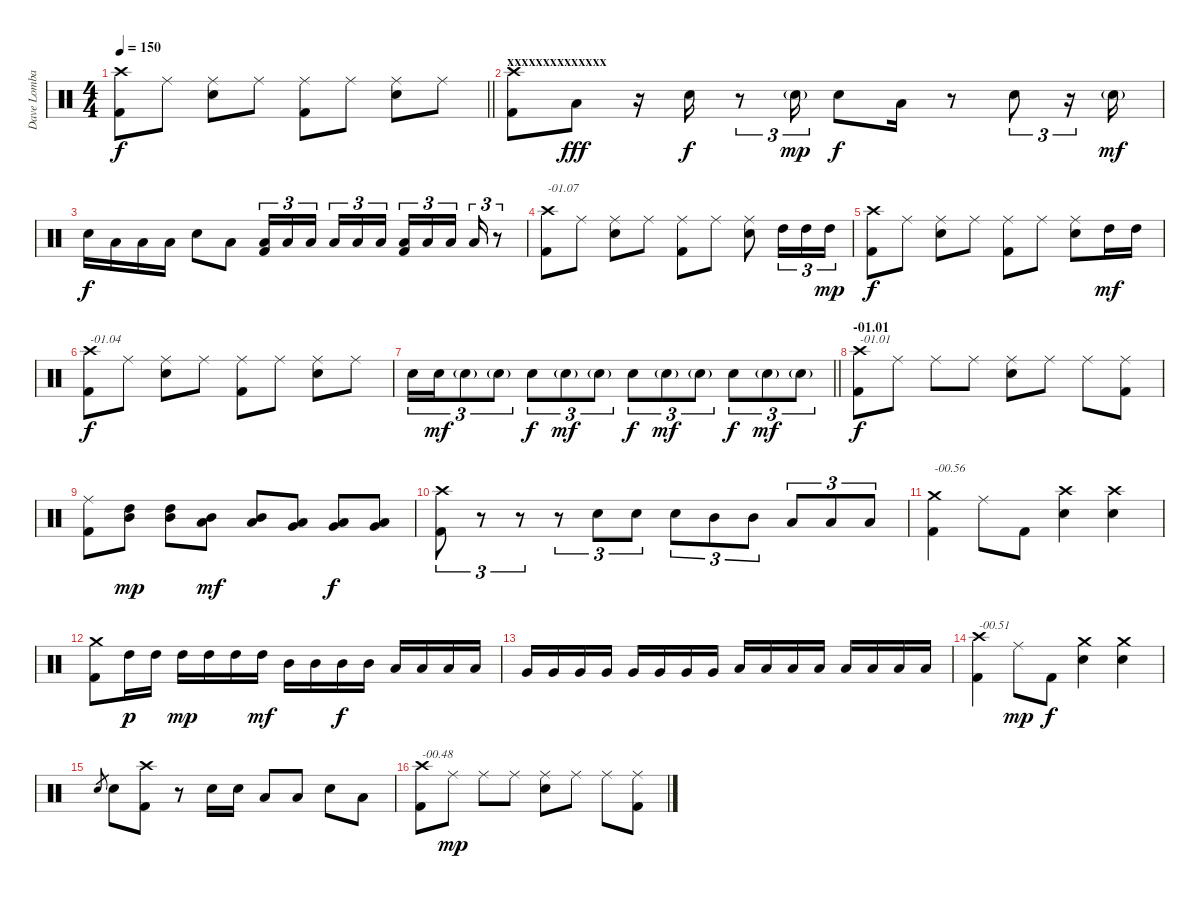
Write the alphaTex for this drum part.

\track ("Dave Lombardo (Drums)" "Dave Lomba") {instrument percussion}
\staff {score}
\articulation defaults
\ts (4 4)
\tempo 150
\clef neutral
\barLineRight lightlight
\ks c
("Crash high (hit)" "Kick (hit) 2").8{dy f} "Ride (middle)".8 ("Ride (middle)" "Electric Snare (hit)").8 "Ride (middle)".8 ("Ride (middle)" "Kick (hit) 2").8 "Ride (middle)".8 ("Ride (middle)" "Electric Snare (hit)").8 "Ride (middle)".8 |
\section ("" "xxxxxxxxxxxxxx")
("Crash high (hit)" "Kick (hit) 2").8 "Low Tom (hit)".8{dy fff} r.16 "Electric Snare (hit)".16{dy f} r.8{tu (3 2)} "Electric Snare (hit)"{g}.16{tu (3 2) dy mp} "Electric Snare (hit)".8{dy f} "Low Tom (hit)".16 r.8 "Electric Snare (hit)".8{tu (3 2)} r.16{tu (3 2)} "Electric Snare (hit)"{g}.16{dy mf} |
"Electric Snare (hit)".16{dy f} "Low Tom (hit)".16 "Low Tom (hit)".16 "Low Tom (hit)".16 "Electric Snare (hit)".8 "Low Tom (hit)".8 ("Low Floor Tom (hit)" "Kick (hit) 2").16{tu (3 2)} "Low Floor Tom (hit)".16{tu (3 2)} "Low Floor Tom (hit)".16{tu (3 2) beam splitsecondary} "Low Floor Tom (hit)".16{tu (3 2)} "Low Floor Tom (hit)".16{tu (3 2)} "Low Floor Tom (hit)".16{tu (3 2)} ("Low Floor Tom (hit)" "Kick (hit) 2").16{tu (3 2)} "Low Floor Tom (hit)".16{tu (3 2)} "Low Floor Tom (hit)".16{tu (3 2) beam splitsecondary} "Low Floor Tom (hit)".16{tu (3 2)} r.8{tu (3 2)} |
("Crash high (hit)" "Kick (hit) 2").8{txt "-01.07"} "Ride (middle)".8 ("Ride (middle)" "Electric Snare (hit)").8 "Ride (middle)".8 ("Ride (middle)" "Kick (hit) 2").8 "Ride (middle)".8 ("Ride (middle)" "Electric Snare (hit)").8 "High Tom (hit)".16{tu (3 2)} "High Tom (hit)".16{tu (3 2)} "High Tom (hit)".16{tu (3 2) dy mp} |
("Crash high (hit)" "Kick (hit) 2").8{dy f} "Ride (middle)".8 ("Ride (middle)" "Electric Snare (hit)").8 "Ride (middle)".8 ("Ride (middle)" "Kick (hit) 2").8 "Ride (middle)".8 ("Ride (middle)" "Electric Snare (hit)").8 "High Tom (hit)".16{dy mf} "High Tom (hit)".16 |
("Crash high (hit)" "Kick (hit) 2").8{txt "-01.04" dy f} "Ride (middle)".8 ("Ride (middle)" "Electric Snare (hit)").8 "Ride (middle)".8 ("Ride (middle)" "Kick (hit) 2").8 "Ride (middle)".8 ("Ride (middle)" "Electric Snare (hit)").8 "Ride (middle)".8 |
\barLineRight lightlight "Electric Snare (hit)".16{tu (3 2)} "Electric Snare (hit)".16{tu (3 2) dy mf} "Electric Snare (hit)"{g}.8{tu (3 2)} "Electric Snare (hit)"{g}.8{tu (3 2)} "Electric Snare (hit)".8{tu (3 2) dy f} "Electric Snare (hit)"{g}.8{tu (3 2) dy mf} "Electric Snare (hit)"{g}.8{tu (3 2)} "Electric Snare (hit)".8{tu (3 2) dy f} "Electric Snare (hit)"{g}.8{tu (3 2) dy mf} "Electric Snare (hit)"{g}.8{tu (3 2)} "Electric Snare (hit)".8{tu (3 2) dy f} "Electric Snare (hit)"{g}.8{tu (3 2) dy mf} "Electric Snare (hit)"{g}.8{tu (3 2)}
|
\section ("" "-01.01")
("Crash high (hit)" "Kick (hit) 2").8{txt "-01.01" dy f} "Ride (middle)".8 "Ride (middle)".8 "Ride (middle)".8 ("Ride (middle)" "Electric Snare (hit)").8 "Ride (middle)".8 "Ride (middle)".8 ("Ride (middle)" "Kick (hit) 2").8 |
("Ride (middle)" "Kick (hit) 2").8 ("Mid Tom (hit)" "High Tom (hit)").8{dy mp} ("Mid Tom (hit)" "High Tom (hit)").8 ("Low Tom (hit)" "Mid Tom (hit)").8{dy mf} ("Low Tom (hit)" "Mid Tom (hit)").8 ("Low Tom (hit)" "Very Low Tom (hit)").8 ("Very Low Tom (hit)" "Low Floor Tom (hit)").8{dy f} ("Very Low Tom (hit)" "Low Floor Tom (hit)").8 |
("Crash high (hit)" "Kick (hit) 2").8{tu (3 2)} r.8{tu (3 2)} r.8{tu (3 2)} r.8{tu (3 2)} "Electric Snare (hit)".8{tu (3 2)} "Electric Snare (hit)".8{tu (3 2)} "Electric Snare (hit)".8{tu (3 2)} "Mid Tom (hit)".8{tu (3 2)} "Mid Tom (hit)".8{tu (3 2)} "Low Tom (hit)".8{tu (3 2)} "Low Tom (hit)".8{tu (3 2)} "Low Tom (hit)".8{tu (3 2)} |
("Crash medium (hit)" "Kick (hit) 2").4{txt "-00.56"} "Ride (middle)".8 "Kick (hit) 2".8 ("Crash high (hit)" "Electric Snare (hit)").4 ("Crash high (hit)" "Electric Snare (hit)").4 |
("Crash medium (hit)" "Kick (hit) 2").8 "High Tom (hit)".16{dy p} "High Tom (hit)".16 "High Tom (hit)".16{dy mp} "High Tom (hit)".16 "High Tom (hit)".16 "High Tom (hit)".16{dy mf} "Mid Tom (hit)".16 "Mid Tom (hit)".16 "Mid Tom (hit)".16{dy f} "Mid Tom (hit)".16 "Low Tom (hit)".16 "Low Tom (hit)".16 "Low Tom (hit)".16 "Low Tom (hit)".16 |
"Very Low Tom (hit)".16 "Very Low Tom (hit)".16 "Very Low Tom (hit)".16 "Very Low Tom (hit)".16 "Very Low Tom (hit)".16 "Very Low Tom (hit)".16 "Very Low Tom (hit)".16 "Very Low Tom (hit)".16 "Low Floor Tom (hit)".16 "Low Floor Tom (hit)".16 "Low Floor Tom (hit)".16 "Low Floor Tom (hit)".16 "Low Floor Tom (hit)".16 "Low Floor Tom (hit)".16 "Low Floor Tom (hit)".16 "Low Floor Tom (hit)".16 |
("Crash high (hit)" "Kick (hit) 2").4{txt "-00.51"} "Ride (middle)".8{dy mp} "Kick (hit) 2".8{dy f} ("Crash medium (hit)" "Electric Snare (hit)").4 ("Crash medium (hit)" "Electric Snare (hit)").4 |
"Electric Snare (hit)".8{gr} "Electric Snare (hit)".8 ("Crash high (hit)" "Kick (hit) 2").8 r.8 "Electric Snare (hit)".16 "Electric Snare (hit)".16 "Low Tom (hit)".8 "Low Tom (hit)".8 "Electric Snare (hit)".8 "Low Tom (hit)".8 |
("Crash high (hit)" "Kick (hit) 2").8{txt "-00.48"} "Ride (middle)".8{dy mp} "Ride (middle)".8 "Ride (middle)".8 ("Ride (middle)" "Electric Snare (hit)").8 "Ride (middle)".8 "Ride (middle)".8 ("Ride (middle)" "Kick (hit) 2").8
